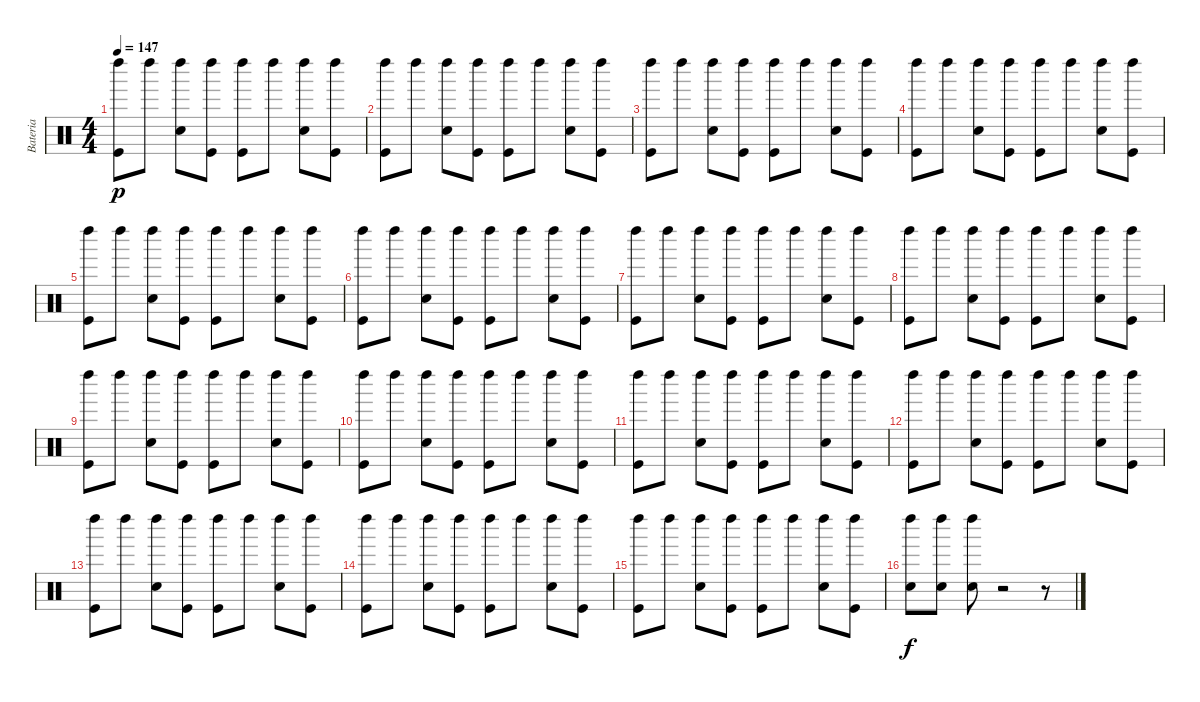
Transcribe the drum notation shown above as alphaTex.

\track ("Bateria" "Bateria") {instrument percussion}
\staff {score}
\articulation defaults
\ts (4 4)
\tempo 147
\clef neutral
\ks c
("Left Maraca (hit)" "Kick (hit)").8{dy p} "Left Maraca (hit)".8 ("Snare (hit) 2" "Left Maraca (hit)").8 ("Left Maraca (hit)" "Kick (hit)").8 ("Left Maraca (hit)" "Kick (hit)").8 "Left Maraca (hit)".8 ("Snare (hit) 2" "Left Maraca (hit)").8 ("Kick (hit)" "Left Maraca (hit)").8 |
("Kick (hit)" "Left Maraca (hit)").8 "Left Maraca (hit)".8 ("Snare (hit) 2" "Left Maraca (hit)").8 ("Left Maraca (hit)" "Kick (hit)").8 ("Left Maraca (hit)" "Kick (hit)").8 "Left Maraca (hit)".8 ("Snare (hit) 2" "Left Maraca (hit)").8 ("Kick (hit)" "Left Maraca (hit)").8 |
("Left Maraca (hit)" "Kick (hit)").8 "Left Maraca (hit)".8 ("Snare (hit) 2" "Left Maraca (hit)").8 ("Left Maraca (hit)" "Kick (hit)").8 ("Left Maraca (hit)" "Kick (hit)").8 "Left Maraca (hit)".8 ("Snare (hit) 2" "Left Maraca (hit)").8 ("Kick (hit)" "Left Maraca (hit)").8 |
("Kick (hit)" "Left Maraca (hit)").8 "Left Maraca (hit)".8 ("Snare (hit) 2" "Left Maraca (hit)").8 ("Left Maraca (hit)" "Kick (hit)").8 ("Left Maraca (hit)" "Kick (hit)").8 "Left Maraca (hit)".8 ("Snare (hit) 2" "Left Maraca (hit)").8 ("Kick (hit)" "Left Maraca (hit)").8 |
("Left Maraca (hit)" "Kick (hit)").8 "Left Maraca (hit)".8 ("Snare (hit) 2" "Left Maraca (hit)").8 ("Left Maraca (hit)" "Kick (hit)").8 ("Left Maraca (hit)" "Kick (hit)").8 "Left Maraca (hit)".8 ("Snare (hit) 2" "Left Maraca (hit)").8 ("Kick (hit)" "Left Maraca (hit)").8 |
("Kick (hit)" "Left Maraca (hit)").8 "Left Maraca (hit)".8 ("Snare (hit) 2" "Left Maraca (hit)").8 ("Left Maraca (hit)" "Kick (hit)").8 ("Left Maraca (hit)" "Kick (hit)").8 "Left Maraca (hit)".8 ("Snare (hit) 2" "Left Maraca (hit)").8 ("Kick (hit)" "Left Maraca (hit)").8 |
("Left Maraca (hit)" "Kick (hit)").8 "Left Maraca (hit)".8 ("Snare (hit) 2" "Left Maraca (hit)").8 ("Left Maraca (hit)" "Kick (hit)").8 ("Left Maraca (hit)" "Kick (hit)").8 "Left Maraca (hit)".8 ("Snare (hit) 2" "Left Maraca (hit)").8 ("Kick (hit)" "Left Maraca (hit)").8 |
("Left Maraca (hit)" "Kick (hit)").8 "Left Maraca (hit)".8 ("Snare (hit) 2" "Left Maraca (hit)").8 ("Left Maraca (hit)" "Kick (hit)").8 ("Left Maraca (hit)" "Kick (hit)").8 "Left Maraca (hit)".8 ("Snare (hit) 2" "Left Maraca (hit)").8 ("Kick (hit)" "Left Maraca (hit)").8 |
("Left Maraca (hit)" "Kick (hit)").8 "Left Maraca (hit)".8 ("Snare (hit) 2" "Left Maraca (hit)").8 ("Left Maraca (hit)" "Kick (hit)").8 ("Left Maraca (hit)" "Kick (hit)").8 "Left Maraca (hit)".8 ("Snare (hit) 2" "Left Maraca (hit)").8 ("Kick (hit)" "Left Maraca (hit)").8 |
("Kick (hit)" "Left Maraca (hit)").8 "Left Maraca (hit)".8 ("Snare (hit) 2" "Left Maraca (hit)").8 ("Left Maraca (hit)" "Kick (hit)").8 ("Left Maraca (hit)" "Kick (hit)").8 "Left Maraca (hit)".8 ("Snare (hit) 2" "Left Maraca (hit)").8 ("Kick (hit)" "Left Maraca (hit)").8 |
("Left Maraca (hit)" "Kick (hit)").8 "Left Maraca (hit)".8 ("Snare (hit) 2" "Left Maraca (hit)").8 ("Left Maraca (hit)" "Kick (hit)").8 ("Left Maraca (hit)" "Kick (hit)").8 "Left Maraca (hit)".8 ("Snare (hit) 2" "Left Maraca (hit)").8 ("Kick (hit)" "Left Maraca (hit)").8 |
("Kick (hit)" "Left Maraca (hit)").8 "Left Maraca (hit)".8 ("Snare (hit) 2" "Left Maraca (hit)").8 ("Left Maraca (hit)" "Kick (hit)").8 ("Left Maraca (hit)" "Kick (hit)").8 "Left Maraca (hit)".8 ("Snare (hit) 2" "Left Maraca (hit)").8 ("Kick (hit)" "Left Maraca (hit)").8 |
("Left Maraca (hit)" "Kick (hit)").8 "Left Maraca (hit)".8 ("Snare (hit) 2" "Left Maraca (hit)").8 ("Left Maraca (hit)" "Kick (hit)").8 ("Left Maraca (hit)" "Kick (hit)").8 "Left Maraca (hit)".8 ("Snare (hit) 2" "Left Maraca (hit)").8 ("Kick (hit)" "Left Maraca (hit)").8 |
("Kick (hit)" "Left Maraca (hit)").8 "Left Maraca (hit)".8 ("Snare (hit) 2" "Left Maraca (hit)").8 ("Left Maraca (hit)" "Kick (hit)").8 ("Left Maraca (hit)" "Kick (hit)").8 "Left Maraca (hit)".8 ("Snare (hit) 2" "Left Maraca (hit)").8 ("Kick (hit)" "Left Maraca (hit)").8 |
("Left Maraca (hit)" "Kick (hit)").8 "Left Maraca (hit)".8 ("Left Maraca (hit)" "Snare (hit) 2").8 ("Left Maraca (hit)" "Kick (hit)").8 ("Left Maraca (hit)" "Kick (hit)").8 "Left Maraca (hit)".8 ("Snare (hit) 2" "Left Maraca (hit)").8 ("Kick (hit)" "Left Maraca (hit)").8 |
("Snare (hit) 2" "Left Maraca (hit)").8{dy f volume 16} ("Left Maraca (hit)" "Snare (hit) 2").8 ("Left Maraca (hit)" "Snare (hit) 2").8 r.2 r.8
